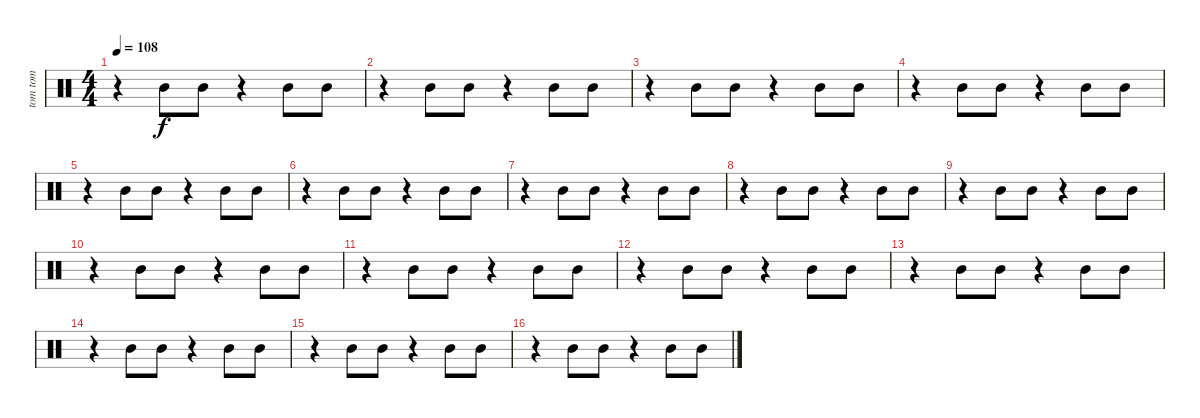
\track ("tom tom             " "tom tom   ") {instrument percussion}
\staff {score}
\articulation defaults
\ts (4 4)
\tempo 108
\clef neutral
\ks c
r.4{dy f} "Mid Tom (hit)".8 "Mid Tom (hit)".8 r.4 "Mid Tom (hit)".8 "Mid Tom (hit)".8 |
r.4 "Mid Tom (hit)".8 "Mid Tom (hit)".8 r.4 "Mid Tom (hit)".8 "Mid Tom (hit)".8 |
r.4 "Mid Tom (hit)".8 "Mid Tom (hit)".8 r.4 "Mid Tom (hit)".8 "Mid Tom (hit)".8 |
r.4 "Mid Tom (hit)".8 "Mid Tom (hit)".8 r.4 "Mid Tom (hit)".8 "Mid Tom (hit)".8 |
r.4 "Mid Tom (hit)".8 "Mid Tom (hit)".8 r.4 "Mid Tom (hit)".8 "Mid Tom (hit)".8 |
r.4 "Mid Tom (hit)".8 "Mid Tom (hit)".8 r.4 "Mid Tom (hit)".8 "Mid Tom (hit)".8 |
r.4 "Mid Tom (hit)".8 "Mid Tom (hit)".8 r.4 "Mid Tom (hit)".8 "Mid Tom (hit)".8 |
r.4 "Mid Tom (hit)".8 "Mid Tom (hit)".8 r.4 "Mid Tom (hit)".8 "Mid Tom (hit)".8 |
r.4 "Mid Tom (hit)".8 "Mid Tom (hit)".8 r.4 "Mid Tom (hit)".8 "Mid Tom (hit)".8 |
r.4 "Mid Tom (hit)".8 "Mid Tom (hit)".8 r.4 "Mid Tom (hit)".8 "Mid Tom (hit)".8 |
r.4 "Mid Tom (hit)".8 "Mid Tom (hit)".8 r.4 "Mid Tom (hit)".8 "Mid Tom (hit)".8 |
r.4 "Mid Tom (hit)".8 "Mid Tom (hit)".8 r.4 "Mid Tom (hit)".8 "Mid Tom (hit)".8 |
r.4 "Mid Tom (hit)".8 "Mid Tom (hit)".8 r.4 "Mid Tom (hit)".8 "Mid Tom (hit)".8 |
r.4 "Mid Tom (hit)".8 "Mid Tom (hit)".8 r.4 "Mid Tom (hit)".8 "Mid Tom (hit)".8 |
r.4 "Mid Tom (hit)".8 "Mid Tom (hit)".8 r.4 "Mid Tom (hit)".8 "Mid Tom (hit)".8 |
r.4 "Mid Tom (hit)".8{volume 16} "Mid Tom (hit)".8{volume 16} r.4 "Mid Tom (hit)".8{volume 15} "Mid Tom (hit)".8{volume 15}
